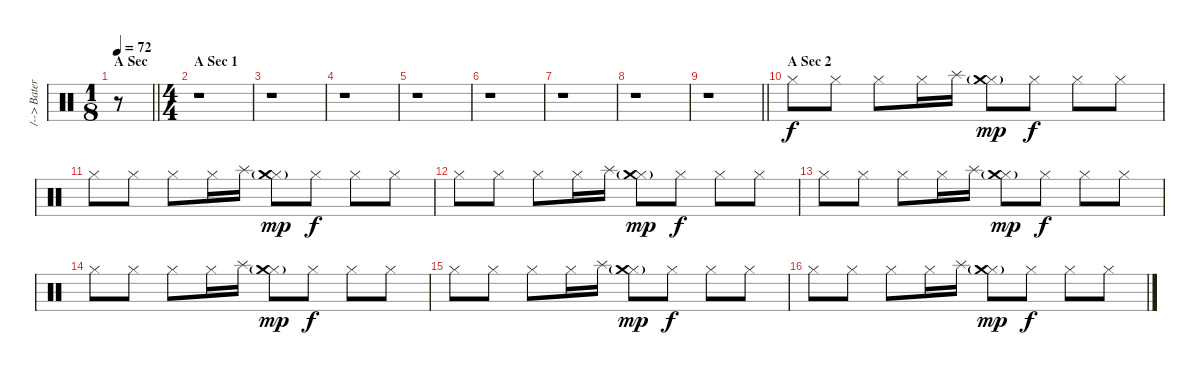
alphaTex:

\track ("/--> Bateria <---/" "/--> Bater") {instrument percussion}
\staff {score}
\articulation defaults
\ts (1 8)
\section ("" "A Sec")
\tempo 72
\clef neutral
\barLineRight lightlight
\ks c
r.8{dy f} |
\ts (4 4)
\section ("" "A Sec 1")
r.1 |
r.1 |
r.1 |
r.1 |
r.1 |
r.1 |
r.1 |
\barLineRight lightlight
r.1 |
\section ("" "A Sec 2")
"Hi-Hat (closed)".8 "Hi-Hat (closed)".8 "Hi-Hat (closed)".8 "Hi-Hat (closed)".16 "Splash (hit)".16 ("Hi-Hat (closed)" "Crash medium (hit)"{g}).8{dy mp} "Hi-Hat (closed)".8{dy f} "Hi-Hat (closed)".8 "Hi-Hat (closed)".8 |
"Hi-Hat (closed)".8 "Hi-Hat (closed)".8 "Hi-Hat (closed)".8 "Hi-Hat (closed)".16 "Splash (hit)".16 ("Hi-Hat (closed)" "Crash medium (hit)"{g}).8{dy mp} "Hi-Hat (closed)".8{dy f} "Hi-Hat (closed)".8 "Hi-Hat (closed)".8 |
"Hi-Hat (closed)".8 "Hi-Hat (closed)".8 "Hi-Hat (closed)".8 "Hi-Hat (closed)".16 "Splash (hit)".16 ("Hi-Hat (closed)" "Crash medium (hit)"{g}).8{dy mp} "Hi-Hat (closed)".8{dy f} "Hi-Hat (closed)".8 "Hi-Hat (closed)".8 |
"Hi-Hat (closed)".8 "Hi-Hat (closed)".8 "Hi-Hat (closed)".8 "Hi-Hat (closed)".16 "Splash (hit)".16 ("Hi-Hat (closed)" "Crash medium (hit)"{g}).8{dy mp} "Hi-Hat (closed)".8{dy f} "Hi-Hat (closed)".8 "Hi-Hat (closed)".8 |
"Hi-Hat (closed)".8 "Hi-Hat (closed)".8 "Hi-Hat (closed)".8 "Hi-Hat (closed)".16 "Splash (hit)".16 ("Hi-Hat (closed)" "Crash medium (hit)"{g}).8{dy mp} "Hi-Hat (closed)".8{dy f} "Hi-Hat (closed)".8 "Hi-Hat (closed)".8 |
"Hi-Hat (closed)".8 "Hi-Hat (closed)".8 "Hi-Hat (closed)".8 "Hi-Hat (closed)".16 "Splash (hit)".16 ("Hi-Hat (closed)" "Crash medium (hit)"{g}).8{dy mp} "Hi-Hat (closed)".8{dy f} "Hi-Hat (closed)".8 "Hi-Hat (closed)".8 |
"Hi-Hat (closed)".8 "Hi-Hat (closed)".8 "Hi-Hat (closed)".8 "Hi-Hat (closed)".16 "Splash (hit)".16 ("Hi-Hat (closed)" "Crash medium (hit)"{g}).8{dy mp} "Hi-Hat (closed)".8{dy f} "Hi-Hat (closed)".8 "Hi-Hat (closed)".8
